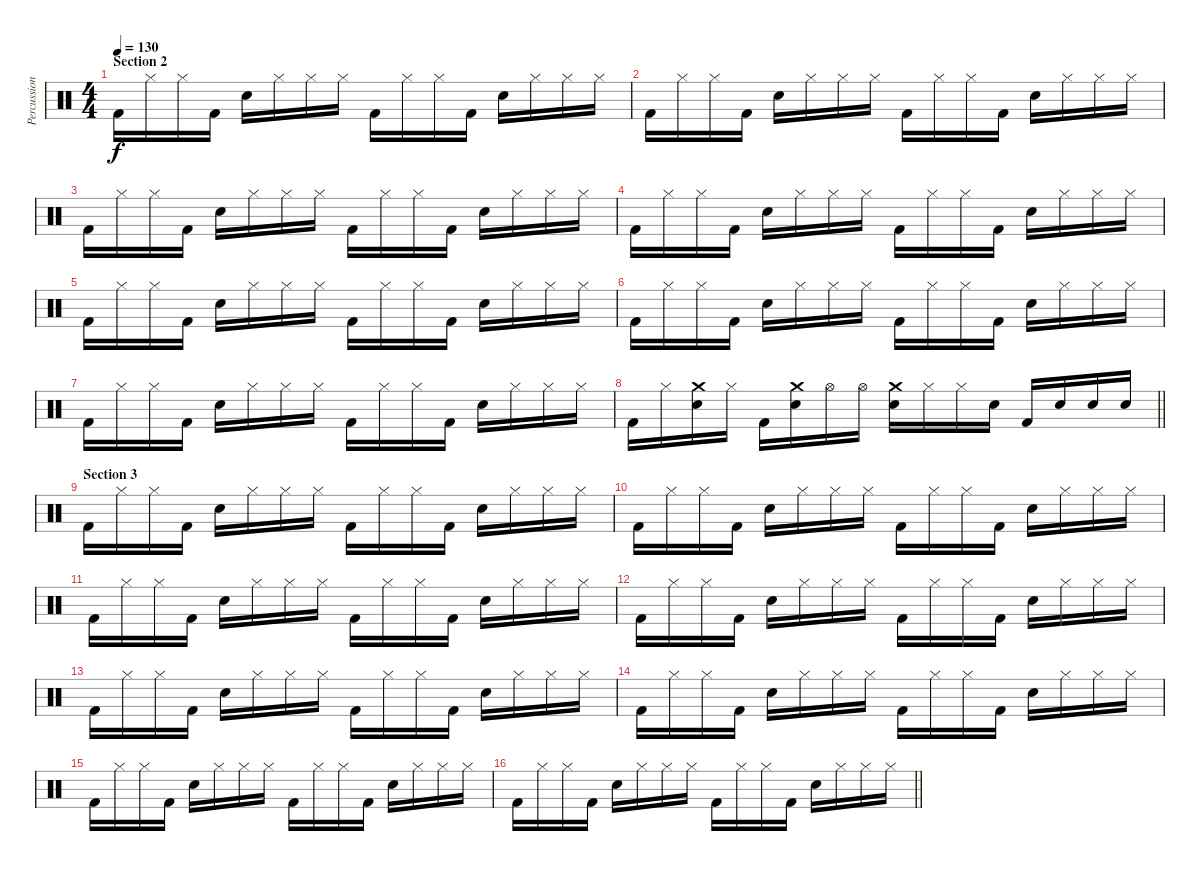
\track ("Percussion" "Percussion") {instrument percussion}
\staff {score}
\articulation defaults
\ts (4 4)
\section ("" "Section 2")
\tempo 130
\clef neutral
\ks c "Kick (hit) 2".16{dy f} "Hi-Hat (closed)".16 "Hi-Hat (closed)".16 "Kick (hit) 2".16 "Snare (hit) 2".16 "Hi-Hat (closed)".16 "Hi-Hat (closed)".16 "Hi-Hat (closed)".16 "Kick (hit) 2".16 "Hi-Hat (closed)".16 "Hi-Hat (closed)".16 "Kick (hit) 2".16 "Snare (hit) 2".16 "Hi-Hat (closed)".16 "Hi-Hat (closed)".16 "Hi-Hat (closed)".16
|
"Kick (hit) 2".16 "Hi-Hat (closed)".16 "Hi-Hat (closed)".16 "Kick (hit) 2".16 "Snare (hit) 2".16 "Hi-Hat (closed)".16 "Hi-Hat (closed)".16 "Hi-Hat (closed)".16 "Kick (hit) 2".16 "Hi-Hat (closed)".16 "Hi-Hat (closed)".16 "Kick (hit) 2".16 "Snare (hit) 2".16 "Hi-Hat (closed)".16 "Hi-Hat (closed)".16 "Hi-Hat (closed)".16 |
"Kick (hit) 2".16 "Hi-Hat (closed)".16 "Hi-Hat (closed)".16 "Kick (hit) 2".16 "Snare (hit) 2".16 "Hi-Hat (closed)".16 "Hi-Hat (closed)".16 "Hi-Hat (closed)".16 "Kick (hit) 2".16 "Hi-Hat (closed)".16 "Hi-Hat (closed)".16 "Kick (hit) 2".16 "Snare (hit) 2".16 "Hi-Hat (closed)".16 "Hi-Hat (closed)".16 "Hi-Hat (closed)".16 |
"Kick (hit) 2".16 "Hi-Hat (closed)".16 "Hi-Hat (closed)".16 "Kick (hit) 2".16 "Snare (hit) 2".16 "Hi-Hat (closed)".16 "Hi-Hat (closed)".16 "Hi-Hat (closed)".16 "Kick (hit) 2".16 "Hi-Hat (closed)".16 "Hi-Hat (closed)".16 "Kick (hit) 2".16 "Snare (hit) 2".16 "Hi-Hat (closed)".16 "Hi-Hat (closed)".16 "Hi-Hat (closed)".16 |
"Kick (hit) 2".16 "Hi-Hat (closed)".16 "Hi-Hat (closed)".16 "Kick (hit) 2".16 "Snare (hit) 2".16 "Hi-Hat (closed)".16 "Hi-Hat (closed)".16 "Hi-Hat (closed)".16 "Kick (hit) 2".16 "Hi-Hat (closed)".16 "Hi-Hat (closed)".16 "Kick (hit) 2".16 "Snare (hit) 2".16 "Hi-Hat (closed)".16 "Hi-Hat (closed)".16 "Hi-Hat (closed)".16 |
"Kick (hit) 2".16 "Hi-Hat (closed)".16 "Hi-Hat (closed)".16 "Kick (hit) 2".16 "Snare (hit) 2".16 "Hi-Hat (closed)".16 "Hi-Hat (closed)".16 "Hi-Hat (closed)".16 "Kick (hit) 2".16 "Hi-Hat (closed)".16 "Hi-Hat (closed)".16 "Kick (hit) 2".16 "Snare (hit) 2".16 "Hi-Hat (closed)".16 "Hi-Hat (closed)".16 "Hi-Hat (closed)".16 |
"Kick (hit) 2".16 "Hi-Hat (closed)".16 "Hi-Hat (closed)".16 "Kick (hit) 2".16 "Snare (hit) 2".16 "Hi-Hat (closed)".16 "Hi-Hat (closed)".16 "Hi-Hat (closed)".16 "Kick (hit) 2".16 "Hi-Hat (closed)".16 "Hi-Hat (closed)".16 "Kick (hit) 2".16 "Snare (hit) 2".16 "Hi-Hat (closed)".16 "Hi-Hat (closed)".16 "Hi-Hat (closed)".16 |
\barLineRight lightlight "Kick (hit) 2".16 "Hi-Hat (closed)".16
("Crash medium (hit)" "Snare (hit) 2").16 "Hi-Hat (closed)".16 "Kick (hit) 2".16 ("Crash medium (hit)" "Snare (hit) 2").16 "Hi-Hat (open)".16 "Hi-Hat (open)".16 ("Crash medium (hit)" "Snare (hit) 2").16 "Hi-Hat (closed)".16 "Hi-Hat (closed)".16 "Snare (hit) 2".16 "Kick (hit) 2".16 "Snare (hit) 2".16 "Snare (hit) 2".16 "Snare (hit) 2".16 |
\section ("" "Section 3")
"Kick (hit) 2".16 "Hi-Hat (closed)".16 "Hi-Hat (closed)".16 "Kick (hit) 2".16 "Snare (hit) 2".16 "Hi-Hat (closed)".16 "Hi-Hat (closed)".16 "Hi-Hat (closed)".16 "Kick (hit) 2".16 "Hi-Hat (closed)".16 "Hi-Hat (closed)".16 "Kick (hit) 2".16 "Snare (hit) 2".16 "Hi-Hat (closed)".16 "Hi-Hat (closed)".16 "Hi-Hat (closed)".16 |
"Kick (hit) 2".16 "Hi-Hat (closed)".16 "Hi-Hat (closed)".16 "Kick (hit) 2".16 "Snare (hit) 2".16 "Hi-Hat (closed)".16 "Hi-Hat (closed)".16 "Hi-Hat (closed)".16 "Kick (hit) 2".16 "Hi-Hat (closed)".16 "Hi-Hat (closed)".16 "Kick (hit) 2".16 "Snare (hit) 2".16 "Hi-Hat (closed)".16 "Hi-Hat (closed)".16 "Hi-Hat (closed)".16 |
"Kick (hit) 2".16 "Hi-Hat (closed)".16 "Hi-Hat (closed)".16 "Kick (hit) 2".16 "Snare (hit) 2".16 "Hi-Hat (closed)".16 "Hi-Hat (closed)".16 "Hi-Hat (closed)".16 "Kick (hit) 2".16 "Hi-Hat (closed)".16 "Hi-Hat (closed)".16 "Kick (hit) 2".16 "Snare (hit) 2".16 "Hi-Hat (closed)".16 "Hi-Hat (closed)".16 "Hi-Hat (closed)".16 |
"Kick (hit) 2".16 "Hi-Hat (closed)".16 "Hi-Hat (closed)".16 "Kick (hit) 2".16 "Snare (hit) 2".16 "Hi-Hat (closed)".16 "Hi-Hat (closed)".16 "Hi-Hat (closed)".16 "Kick (hit) 2".16 "Hi-Hat (closed)".16 "Hi-Hat (closed)".16 "Kick (hit) 2".16 "Snare (hit) 2".16 "Hi-Hat (closed)".16 "Hi-Hat (closed)".16 "Hi-Hat (closed)".16 |
"Kick (hit) 2".16 "Hi-Hat (closed)".16 "Hi-Hat (closed)".16 "Kick (hit) 2".16 "Snare (hit) 2".16 "Hi-Hat (closed)".16 "Hi-Hat (closed)".16 "Hi-Hat (closed)".16 "Kick (hit) 2".16 "Hi-Hat (closed)".16 "Hi-Hat (closed)".16 "Kick (hit) 2".16 "Snare (hit) 2".16 "Hi-Hat (closed)".16 "Hi-Hat (closed)".16 "Hi-Hat (closed)".16 |
"Kick (hit) 2".16 "Hi-Hat (closed)".16 "Hi-Hat (closed)".16 "Kick (hit) 2".16 "Snare (hit) 2".16 "Hi-Hat (closed)".16 "Hi-Hat (closed)".16 "Hi-Hat (closed)".16 "Kick (hit) 2".16 "Hi-Hat (closed)".16 "Hi-Hat (closed)".16 "Kick (hit) 2".16 "Snare (hit) 2".16 "Hi-Hat (closed)".16 "Hi-Hat (closed)".16 "Hi-Hat (closed)".16 |
"Kick (hit) 2".16 "Hi-Hat (closed)".16 "Hi-Hat (closed)".16 "Kick (hit) 2".16 "Snare (hit) 2".16 "Hi-Hat (closed)".16 "Hi-Hat (closed)".16 "Hi-Hat (closed)".16 "Kick (hit) 2".16 "Hi-Hat (closed)".16 "Hi-Hat (closed)".16 "Kick (hit) 2".16 "Snare (hit) 2".16 "Hi-Hat (closed)".16 "Hi-Hat (closed)".16 "Hi-Hat (closed)".16 |
\barLineRight lightlight "Kick (hit) 2".16 "Hi-Hat (closed)".16 "Hi-Hat (closed)".16 "Kick (hit) 2".16 "Snare (hit) 2".16 "Hi-Hat (closed)".16 "Hi-Hat (closed)".16 "Hi-Hat (closed)".16 "Kick (hit) 2".16 "Hi-Hat (closed)".16 "Hi-Hat (closed)".16 "Kick (hit) 2".16 "Snare (hit) 2".16 "Hi-Hat (closed)".16 "Hi-Hat (closed)".16 "Hi-Hat (closed)".16
